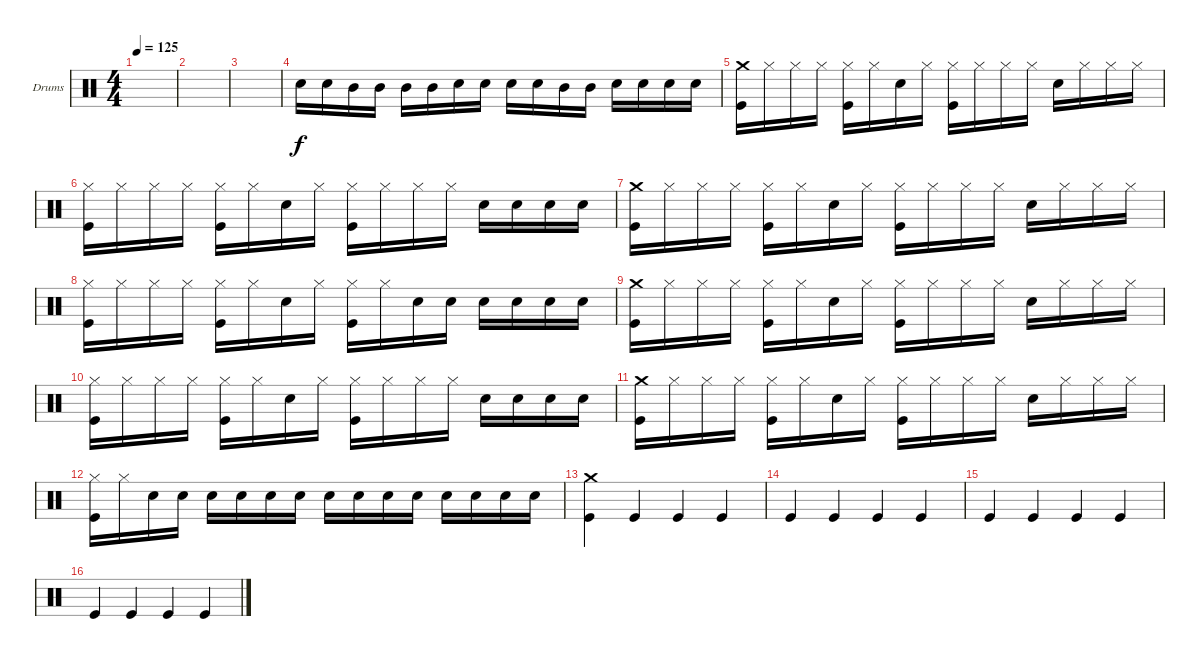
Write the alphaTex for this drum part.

\defaultSystemsLayout 4
\bracketExtendMode groupsimilarinstruments
\firstSystemTrackNameOrientation horizontal
\otherSystemsTrackNameOrientation horizontal
\track ("Drumkit" "Drums") {instrument percussion}
\staff {score}
\articulation defaults
\ts (4 4)
\tempo 125
\clef neutral
\scale
0.474178
\ks c
|
\scale
0.262911 |
\scale
0.262911 |
\scale
0.333333 "Snare (hit) 2".16 "Snare (hit) 2".16 "Mid Tom (hit)".16 "Mid Tom (hit)".16 "Mid Tom (hit)".16 "Mid Tom (hit)".16 "Snare (hit) 2".16 "Snare (hit) 2".16 "Snare (hit) 2".16 "Snare (hit) 2".16 "Mid Tom (hit)".16 "Mid Tom (hit)".16 "Snare (hit) 2".16 "Snare (hit) 2".16 "Snare (hit) 2".16 "Snare (hit) 2".16 |
\scale
0.333333 ("Kick (hit)" "Crash medium (hit)").16 "Hi-Hat (closed)".16 "Hi-Hat (closed)".16 "Hi-Hat (closed)".16 ("Kick (hit)" "Hi-Hat (closed)").16 "Hi-Hat (closed)".16 "Snare (hit) 2".16 "Hi-Hat (closed)".16 ("Hi-Hat (closed)" "Kick (hit)").16 "Hi-Hat (closed)".16 "Hi-Hat (closed)".16 "Hi-Hat (closed)".16 "Snare (hit) 2".16 "Hi-Hat (closed)".16 "Hi-Hat (closed)".16 "Hi-Hat (closed)".16 |
\scale
0.333333 ("Kick (hit)" "Hi-Hat (closed)").16 "Hi-Hat (closed)".16 "Hi-Hat (closed)".16 "Hi-Hat (closed)".16 ("Kick (hit)" "Hi-Hat (closed)").16 "Hi-Hat (closed)".16 "Snare (hit) 2".16 "Hi-Hat (closed)".16 ("Hi-Hat (closed)" "Kick (hit)").16 "Hi-Hat (closed)".16 "Hi-Hat (closed)".16 "Hi-Hat (closed)".16 "Snare (hit) 2".16 "Snare (hit) 2".16 "Snare (hit) 2".16 "Snare (hit) 2".16 |
\scale
0.333333 ("Kick (hit)" "Crash medium (hit)").16 "Hi-Hat (closed)".16 "Hi-Hat (closed)".16 "Hi-Hat (closed)".16 ("Kick (hit)" "Hi-Hat (closed)").16 "Hi-Hat (closed)".16 "Snare (hit) 2".16 "Hi-Hat (closed)".16 ("Hi-Hat (closed)" "Kick (hit)").16 "Hi-Hat (closed)".16 "Hi-Hat (closed)".16 "Hi-Hat (closed)".16 "Snare (hit) 2".16 "Hi-Hat (closed)".16 "Hi-Hat (closed)".16 "Hi-Hat (closed)".16 |
\scale
0.333333 ("Kick (hit)" "Hi-Hat (closed)").16 "Hi-Hat (closed)".16 "Hi-Hat (closed)".16 "Hi-Hat (closed)".16 ("Kick (hit)" "Hi-Hat (closed)").16 "Hi-Hat (closed)".16 "Snare (hit) 2".16 "Hi-Hat (closed)".16 ("Hi-Hat (closed)" "Kick (hit)").16 "Hi-Hat (closed)".16 "Snare (hit) 2".16 "Snare (hit) 2".16 "Snare (hit) 2".16 "Snare (hit) 2".16 "Snare (hit) 2".16 "Snare (hit) 2".16 |
\scale
0.333333 ("Kick (hit)" "Crash medium (hit)").16 "Hi-Hat (closed)".16 "Hi-Hat (closed)".16 "Hi-Hat (closed)".16 ("Kick (hit)" "Hi-Hat (closed)").16 "Hi-Hat (closed)".16 "Snare (hit) 2".16 "Hi-Hat (closed)".16 ("Hi-Hat (closed)" "Kick (hit)").16 "Hi-Hat (closed)".16 "Hi-Hat (closed)".16 "Hi-Hat (closed)".16 "Snare (hit) 2".16 "Hi-Hat (closed)".16 "Hi-Hat (closed)".16 "Hi-Hat (closed)".16 |
\scale
0.333333 ("Kick (hit)" "Hi-Hat (closed)").16 "Hi-Hat (closed)".16 "Hi-Hat (closed)".16 "Hi-Hat (closed)".16 ("Kick (hit)" "Hi-Hat (closed)").16 "Hi-Hat (closed)".16 "Snare (hit) 2".16 "Hi-Hat (closed)".16 ("Hi-Hat (closed)" "Kick (hit)").16 "Hi-Hat (closed)".16 "Hi-Hat (closed)".16 "Hi-Hat (closed)".16 "Snare (hit) 2".16 "Snare (hit) 2".16 "Snare (hit) 2".16 "Snare (hit) 2".16 |
\scale
0.333333 ("Kick (hit)" "Crash medium (hit)").16 "Hi-Hat (closed)".16 "Hi-Hat (closed)".16 "Hi-Hat (closed)".16 ("Kick (hit)" "Hi-Hat (closed)").16 "Hi-Hat (closed)".16 "Snare (hit) 2".16 "Hi-Hat (closed)".16 ("Hi-Hat (closed)" "Kick (hit)").16 "Hi-Hat (closed)".16 "Hi-Hat (closed)".16 "Hi-Hat (closed)".16 "Snare (hit) 2".16 "Hi-Hat (closed)".16 "Hi-Hat (closed)".16 "Hi-Hat (closed)".16 |
\scale
0.333333 ("Hi-Hat (closed)" "Kick (hit)").16 "Hi-Hat (closed)".16 "Snare (hit) 2".16 "Snare (hit) 2".16 "Snare (hit) 2".16 "Snare (hit) 2".16 "Snare (hit) 2".16 "Snare (hit) 2".16 "Snare (hit) 2".16 "Snare (hit) 2".16 "Snare (hit) 2".16 "Snare (hit) 2".16 "Snare (hit) 2".16 "Snare (hit) 2".16 "Snare (hit) 2".16 "Snare (hit) 2".16 |
\scale
0.333333 ("Crash medium (hit)" "Kick (hit)").4 "Kick (hit)".4 "Kick (hit)".4 "Kick (hit)".4 |
\scale
0.333333 "Kick (hit)".4 "Kick (hit)".4 "Kick (hit)".4 "Kick (hit)".4 |
\scale
0.333333 "Kick (hit)".4 "Kick (hit)".4 "Kick (hit)".4 "Kick (hit)".4 |
\scale
0.333333 "Kick (hit)".4 "Kick (hit)".4 "Kick (hit)".4 "Kick (hit)".4
